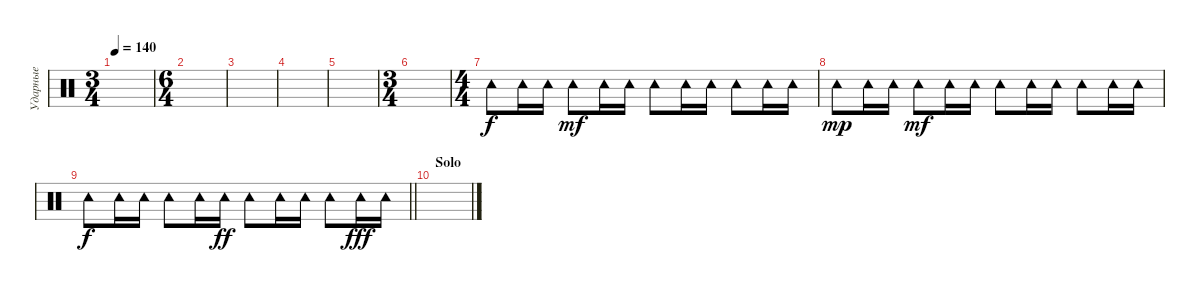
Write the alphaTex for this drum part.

\track ("Ударные" "Ударные") {instrument percussion}
\staff {score}
\articulation defaults
\ts (3 4)
\tempo 140
\clef neutral
\ks c
|
\ts (6 4)
|
|
|
|
\ts (3 4)
|
\ts (4 4)
"Tambourine (hit)".8 "Tambourine (hit)".16 "Tambourine (hit)".16 "Tambourine (hit)".8{dy mf} "Tambourine (hit)".16 "Tambourine (hit)".16 "Tambourine (hit)".8 "Tambourine (hit)".16 "Tambourine (hit)".16 "Tambourine (hit)".8 "Tambourine (hit)".16 "Tambourine (hit)".16 |
"Tambourine (hit)".8{dy mp} "Tambourine (hit)".16 "Tambourine (hit)".16 "Tambourine (hit)".8{dy mf} "Tambourine (hit)".16 "Tambourine (hit)".16 "Tambourine (hit)".8 "Tambourine (hit)".16 "Tambourine (hit)".16 "Tambourine (hit)".8 "Tambourine (hit)".16 "Tambourine (hit)".16 |
\barLineRight lightlight "Tambourine (hit)".8{dy f} "Tambourine (hit)".16 "Tambourine (hit)".16 "Tambourine (hit)".8 "Tambourine (hit)".16 "Tambourine (hit)".16{dy ff} "Tambourine (hit)".8 "Tambourine (hit)".16 "Tambourine (hit)".16 "Tambourine (hit)".8 "Tambourine (hit)".16{dy fff} "Tambourine (hit)".16
|
\section ("" "Solo")
